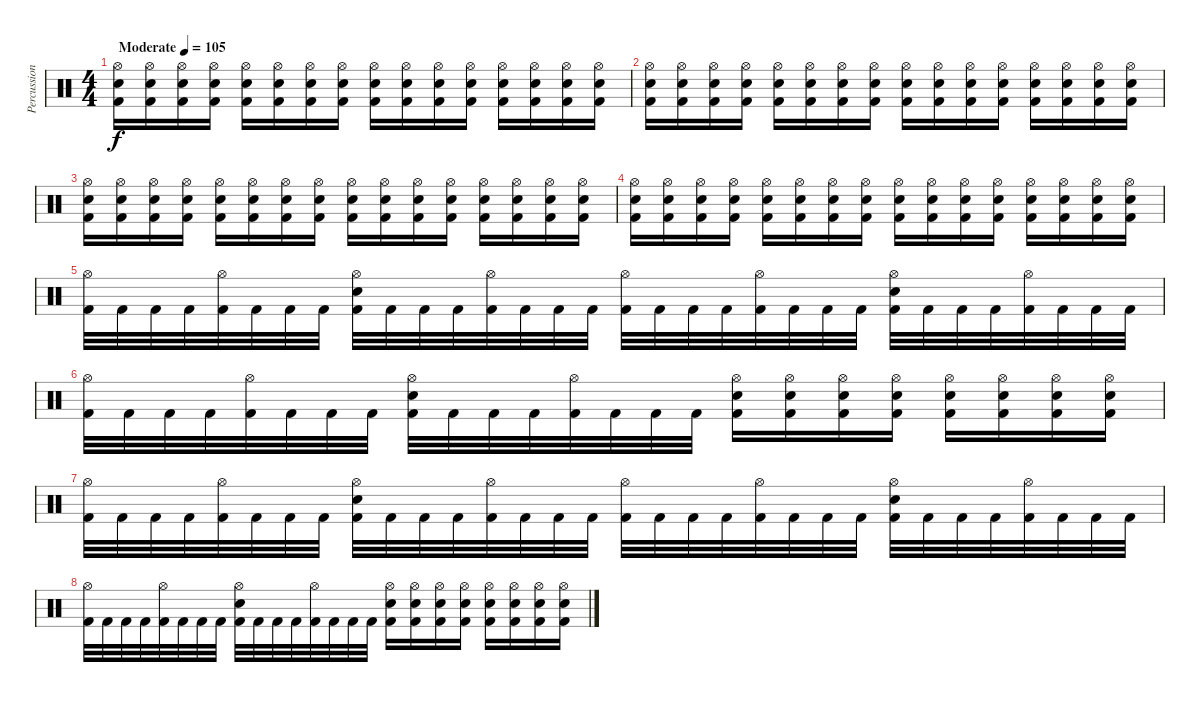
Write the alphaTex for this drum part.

\track ("Percussion" "Percussion") {instrument percussion}
\staff {score}
\articulation defaults
\ts (4 4)
\tempo (105 "Moderate")
\clef neutral
\ks c
("Hi-Hat (open)" "Snare (hit) 2" "Kick (hit) 2").16{dy f} ("Hi-Hat (open)" "Snare (hit) 2" "Kick (hit) 2").16 ("Hi-Hat (open)" "Snare (hit) 2" "Kick (hit) 2").16 ("Hi-Hat (open)" "Snare (hit) 2" "Kick (hit) 2").16 ("Hi-Hat (open)" "Snare (hit) 2" "Kick (hit) 2").16 ("Hi-Hat (open)" "Snare (hit) 2" "Kick (hit) 2").16 ("Hi-Hat (open)" "Snare (hit) 2" "Kick (hit) 2").16 ("Hi-Hat (open)" "Snare (hit) 2" "Kick (hit) 2").16 ("Hi-Hat (open)" "Snare (hit) 2" "Kick (hit) 2").16 ("Hi-Hat (open)" "Snare (hit) 2" "Kick (hit) 2").16 ("Hi-Hat (open)" "Snare (hit) 2" "Kick (hit) 2").16 ("Hi-Hat (open)" "Snare (hit) 2" "Kick (hit) 2").16 ("Hi-Hat (open)" "Snare (hit) 2" "Kick (hit) 2").16 ("Hi-Hat (open)" "Snare (hit) 2" "Kick (hit) 2").16 ("Hi-Hat (open)" "Snare (hit) 2" "Kick (hit) 2").16 ("Hi-Hat (open)" "Snare (hit) 2" "Kick (hit) 2").16 |
("Hi-Hat (open)" "Snare (hit) 2" "Kick (hit) 2").16 ("Hi-Hat (open)" "Snare (hit) 2" "Kick (hit) 2").16 ("Hi-Hat (open)" "Snare (hit) 2" "Kick (hit) 2").16 ("Hi-Hat (open)" "Snare (hit) 2" "Kick (hit) 2").16 ("Hi-Hat (open)" "Snare (hit) 2" "Kick (hit) 2").16 ("Hi-Hat (open)" "Snare (hit) 2" "Kick (hit) 2").16 ("Hi-Hat (open)" "Snare (hit) 2" "Kick (hit) 2").16 ("Hi-Hat (open)" "Snare (hit) 2" "Kick (hit) 2").16 ("Hi-Hat (open)" "Snare (hit) 2" "Kick (hit) 2").16 ("Hi-Hat (open)" "Snare (hit) 2" "Kick (hit) 2").16 ("Hi-Hat (open)" "Snare (hit) 2" "Kick (hit) 2").16 ("Hi-Hat (open)" "Snare (hit) 2" "Kick (hit) 2").16 ("Hi-Hat (open)" "Snare (hit) 2" "Kick (hit) 2").16 ("Hi-Hat (open)" "Snare (hit) 2" "Kick (hit) 2").16 ("Hi-Hat (open)" "Snare (hit) 2" "Kick (hit) 2").16 ("Hi-Hat (open)" "Snare (hit) 2" "Kick (hit) 2").16 |
("Hi-Hat (open)" "Snare (hit) 2" "Kick (hit) 2").16 ("Hi-Hat (open)" "Snare (hit) 2" "Kick (hit) 2").16 ("Hi-Hat (open)" "Snare (hit) 2" "Kick (hit) 2").16 ("Hi-Hat (open)" "Snare (hit) 2" "Kick (hit) 2").16 ("Hi-Hat (open)" "Snare (hit) 2" "Kick (hit) 2").16 ("Hi-Hat (open)" "Snare (hit) 2" "Kick (hit) 2").16 ("Hi-Hat (open)" "Snare (hit) 2" "Kick (hit) 2").16 ("Hi-Hat (open)" "Snare (hit) 2" "Kick (hit) 2").16 ("Hi-Hat (open)" "Snare (hit) 2" "Kick (hit) 2").16 ("Hi-Hat (open)" "Snare (hit) 2" "Kick (hit) 2").16 ("Hi-Hat (open)" "Snare (hit) 2" "Kick (hit) 2").16 ("Hi-Hat (open)" "Snare (hit) 2" "Kick (hit) 2").16 ("Hi-Hat (open)" "Snare (hit) 2" "Kick (hit) 2").16 ("Hi-Hat (open)" "Snare (hit) 2" "Kick (hit) 2").16 ("Hi-Hat (open)" "Snare (hit) 2" "Kick (hit) 2").16 ("Hi-Hat (open)" "Snare (hit) 2" "Kick (hit) 2").16 |
("Hi-Hat (open)" "Snare (hit) 2" "Kick (hit) 2").16 ("Hi-Hat (open)" "Snare (hit) 2" "Kick (hit) 2").16 ("Hi-Hat (open)" "Snare (hit) 2" "Kick (hit) 2").16 ("Hi-Hat (open)" "Snare (hit) 2" "Kick (hit) 2").16 ("Hi-Hat (open)" "Snare (hit) 2" "Kick (hit) 2").16 ("Hi-Hat (open)" "Snare (hit) 2" "Kick (hit) 2").16 ("Hi-Hat (open)" "Snare (hit) 2" "Kick (hit) 2").16 ("Hi-Hat (open)" "Snare (hit) 2" "Kick (hit) 2").16 ("Hi-Hat (open)" "Snare (hit) 2" "Kick (hit) 2").16 ("Hi-Hat (open)" "Snare (hit) 2" "Kick (hit) 2").16 ("Hi-Hat (open)" "Snare (hit) 2" "Kick (hit) 2").16 ("Hi-Hat (open)" "Snare (hit) 2" "Kick (hit) 2").16 ("Hi-Hat (open)" "Snare (hit) 2" "Kick (hit) 2").16 ("Hi-Hat (open)" "Snare (hit) 2" "Kick (hit) 2").16 ("Hi-Hat (open)" "Snare (hit) 2" "Kick (hit) 2").16 ("Hi-Hat (open)" "Snare (hit) 2" "Kick (hit) 2").16 |
("Hi-Hat (open)" "Kick (hit) 2").32 "Kick (hit) 2".32 "Kick (hit) 2".32 "Kick (hit) 2".32 ("Hi-Hat (open)" "Kick (hit) 2").32 "Kick (hit) 2".32 "Kick (hit) 2".32 "Kick (hit) 2".32 ("Hi-Hat (open)" "Snare (hit) 2" "Kick (hit) 2").32 "Kick (hit) 2".32 "Kick (hit) 2".32 "Kick (hit) 2".32 ("Hi-Hat (open)" "Kick (hit) 2").32 "Kick (hit) 2".32 "Kick (hit) 2".32 "Kick (hit) 2".32 ("Hi-Hat (open)" "Kick (hit) 2").32 "Kick (hit) 2".32 "Kick (hit) 2".32 "Kick (hit) 2".32 ("Hi-Hat (open)" "Kick (hit) 2").32 "Kick (hit) 2".32 "Kick (hit) 2".32 "Kick (hit) 2".32 ("Hi-Hat (open)" "Snare (hit) 2" "Kick (hit) 2").32 "Kick (hit) 2".32 "Kick (hit) 2".32 "Kick (hit) 2".32 ("Hi-Hat (open)" "Kick (hit) 2").32 "Kick (hit) 2".32 "Kick (hit) 2".32 "Kick (hit) 2".32 |
("Hi-Hat (open)" "Kick (hit) 2").32 "Kick (hit) 2".32 "Kick (hit) 2".32 "Kick (hit) 2".32 ("Hi-Hat (open)" "Kick (hit) 2").32 "Kick (hit) 2".32 "Kick (hit) 2".32 "Kick (hit) 2".32 ("Hi-Hat (open)" "Snare (hit) 2" "Kick (hit) 2").32 "Kick (hit) 2".32 "Kick (hit) 2".32 "Kick (hit) 2".32 ("Hi-Hat (open)" "Kick (hit) 2").32 "Kick (hit) 2".32 "Kick (hit) 2".32 "Kick (hit) 2".32 ("Hi-Hat (open)" "Snare (hit) 2" "Kick (hit) 2").16 ("Hi-Hat (open)" "Snare (hit) 2" "Kick (hit) 2").16 ("Hi-Hat (open)" "Snare (hit) 2" "Kick (hit) 2").16 ("Hi-Hat (open)" "Snare (hit) 2" "Kick (hit) 2").16 ("Hi-Hat (open)" "Snare (hit) 2" "Kick (hit) 2").16 ("Hi-Hat (open)" "Snare (hit) 2" "Kick (hit) 2").16 ("Hi-Hat (open)" "Snare (hit) 2" "Kick (hit) 2").16 ("Hi-Hat (open)" "Snare (hit) 2" "Kick (hit) 2").16 |
("Hi-Hat (open)" "Kick (hit) 2").32 "Kick (hit) 2".32 "Kick (hit) 2".32 "Kick (hit) 2".32 ("Hi-Hat (open)" "Kick (hit) 2").32 "Kick (hit) 2".32 "Kick (hit) 2".32 "Kick (hit) 2".32 ("Hi-Hat (open)" "Snare (hit) 2" "Kick (hit) 2").32 "Kick (hit) 2".32 "Kick (hit) 2".32 "Kick (hit) 2".32 ("Hi-Hat (open)" "Kick (hit) 2").32 "Kick (hit) 2".32 "Kick (hit) 2".32 "Kick (hit) 2".32 ("Hi-Hat (open)" "Kick (hit) 2").32 "Kick (hit) 2".32 "Kick (hit) 2".32 "Kick (hit) 2".32 ("Hi-Hat (open)" "Kick (hit) 2").32 "Kick (hit) 2".32 "Kick (hit) 2".32 "Kick (hit) 2".32 ("Hi-Hat (open)" "Snare (hit) 2" "Kick (hit) 2").32 "Kick (hit) 2".32 "Kick (hit) 2".32 "Kick (hit) 2".32 ("Hi-Hat (open)" "Kick (hit) 2").32 "Kick (hit) 2".32 "Kick (hit) 2".32 "Kick (hit) 2".32 |
("Hi-Hat (open)" "Kick (hit) 2").32 "Kick (hit) 2".32 "Kick (hit) 2".32 "Kick (hit) 2".32 ("Hi-Hat (open)" "Kick (hit) 2").32 "Kick (hit) 2".32 "Kick (hit) 2".32 "Kick (hit) 2".32 ("Hi-Hat (open)" "Snare (hit) 2" "Kick (hit) 2").32 "Kick (hit) 2".32 "Kick (hit) 2".32 "Kick (hit) 2".32 ("Hi-Hat (open)" "Kick (hit) 2").32 "Kick (hit) 2".32 "Kick (hit) 2".32 "Kick (hit) 2".32 ("Hi-Hat (open)" "Snare (hit) 2" "Kick (hit) 2").16 ("Hi-Hat (open)" "Snare (hit) 2" "Kick (hit) 2").16 ("Hi-Hat (open)" "Snare (hit) 2" "Kick (hit) 2").16 ("Hi-Hat (open)" "Snare (hit) 2" "Kick (hit) 2").16 ("Hi-Hat (open)" "Snare (hit) 2" "Kick (hit) 2").16 ("Hi-Hat (open)" "Snare (hit) 2" "Kick (hit) 2").16 ("Hi-Hat (open)" "Snare (hit) 2" "Kick (hit) 2").16 ("Hi-Hat (open)" "Snare (hit) 2" "Kick (hit) 2").16
